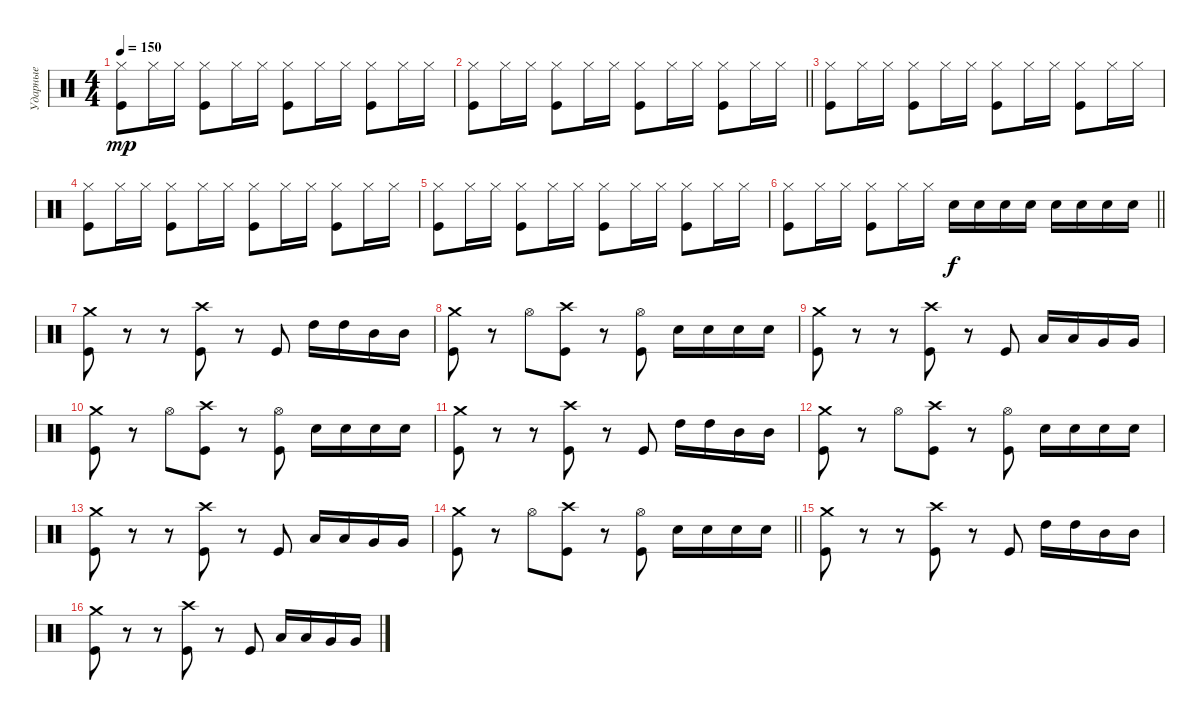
\track ("Ударные" "Ударные") {instrument percussion}
\staff {score}
\articulation defaults
\ts (4 4)
\tempo 150
\clef neutral
\ks c
("Hi-Hat (closed)" "Kick (hit)").8{dy mp} "Hi-Hat (closed)".16 "Hi-Hat (closed)".16 ("Hi-Hat (closed)" "Kick (hit)").8 "Hi-Hat (closed)".16 "Hi-Hat (closed)".16 ("Hi-Hat (closed)" "Kick (hit)").8 "Hi-Hat (closed)".16 "Hi-Hat (closed)".16 ("Hi-Hat (closed)" "Kick (hit)").8 "Hi-Hat (closed)".16 "Hi-Hat (closed)".16 |
\barLineRight lightlight
("Hi-Hat (closed)" "Kick (hit)").8 "Hi-Hat (closed)".16 "Hi-Hat (closed)".16 ("Hi-Hat (closed)" "Kick (hit)").8 "Hi-Hat (closed)".16 "Hi-Hat (closed)".16 ("Hi-Hat (closed)" "Kick (hit)").8 "Hi-Hat (closed)".16 "Hi-Hat (closed)".16 ("Hi-Hat (closed)" "Kick (hit)").8 "Hi-Hat (closed)".16 "Hi-Hat (closed)".16 |
("Hi-Hat (closed)" "Kick (hit)").8 "Hi-Hat (closed)".16 "Hi-Hat (closed)".16 ("Hi-Hat (closed)" "Kick (hit)").8 "Hi-Hat (closed)".16 "Hi-Hat (closed)".16 ("Hi-Hat (closed)" "Kick (hit)").8 "Hi-Hat (closed)".16 "Hi-Hat (closed)".16 ("Hi-Hat (closed)" "Kick (hit)").8 "Hi-Hat (closed)".16 "Hi-Hat (closed)".16 |
("Hi-Hat (closed)" "Kick (hit)").8 "Hi-Hat (closed)".16 "Hi-Hat (closed)".16 ("Hi-Hat (closed)" "Kick (hit)").8 "Hi-Hat (closed)".16 "Hi-Hat (closed)".16 ("Hi-Hat (closed)" "Kick (hit)").8 "Hi-Hat (closed)".16 "Hi-Hat (closed)".16 ("Hi-Hat (closed)" "Kick (hit)").8 "Hi-Hat (closed)".16 "Hi-Hat (closed)".16 |
("Hi-Hat (closed)" "Kick (hit)").8 "Hi-Hat (closed)".16 "Hi-Hat (closed)".16 ("Hi-Hat (closed)" "Kick (hit)").8 "Hi-Hat (closed)".16 "Hi-Hat (closed)".16 ("Hi-Hat (closed)" "Kick (hit)").8 "Hi-Hat (closed)".16 "Hi-Hat (closed)".16 ("Hi-Hat (closed)" "Kick (hit)").8 "Hi-Hat (closed)".16 "Hi-Hat (closed)".16 |
\barLineRight lightlight
("Hi-Hat (closed)" "Kick (hit)").8 "Hi-Hat (closed)".16 "Hi-Hat (closed)".16 ("Hi-Hat (closed)" "Kick (hit)").8 "Hi-Hat (closed)".16 "Hi-Hat (closed)".16 "Electric Snare (hit)".16{dy f} "Electric Snare (hit)".16 "Electric Snare (hit)".16 "Electric Snare (hit)".16 "Electric Snare (hit)".16 "Electric Snare (hit)".16 "Electric Snare (hit)".16 "Electric Snare (hit)".16 |
\section ("" " ")
("Crash medium (hit)" "Kick (hit)").8 r.8 r.8 ("Crash high (hit)" "Kick (hit)").8 r.8 "Kick (hit)".8 "High Tom (hit)".16 "High Tom (hit)".16 "Mid Tom (hit)".16 "Mid Tom (hit)".16 |
("Crash medium (hit)" "Kick (hit)").8 r.8 "Hi-Hat (open)".8 ("Crash high (hit)" "Kick (hit)").8 r.8 ("Hi-Hat (open)" "Kick (hit)").8 "Electric Snare (hit)".16 "Electric Snare (hit)".16 "Electric Snare (hit)".16 "Electric Snare (hit)".16 |
("Crash medium (hit)" "Kick (hit)").8 r.8 r.8 ("Crash high (hit)" "Kick (hit)").8 r.8 "Kick (hit)".8 "Low Tom (hit)".16 "Low Tom (hit)".16 "Very Low Tom (hit)".16 "Very Low Tom (hit)".16 |
("Crash medium (hit)" "Kick (hit)").8 r.8 "Hi-Hat (open)".8 ("Crash high (hit)" "Kick (hit)").8 r.8 ("Hi-Hat (open)" "Kick (hit)").8 "Electric Snare (hit)".16 "Electric Snare (hit)".16 "Electric Snare (hit)".16 "Electric Snare (hit)".16 |
("Crash medium (hit)" "Kick (hit)").8 r.8 r.8 ("Crash high (hit)" "Kick (hit)").8 r.8 "Kick (hit)".8 "High Tom (hit)".16 "High Tom (hit)".16 "Mid Tom (hit)".16 "Mid Tom (hit)".16 |
("Crash medium (hit)" "Kick (hit)").8 r.8 "Hi-Hat (open)".8 ("Crash high (hit)" "Kick (hit)").8 r.8 ("Hi-Hat (open)" "Kick (hit)").8 "Electric Snare (hit)".16 "Electric Snare (hit)".16 "Electric Snare (hit)".16 "Electric Snare (hit)".16 |
("Crash medium (hit)" "Kick (hit)").8 r.8 r.8 ("Crash high (hit)" "Kick (hit)").8 r.8 "Kick (hit)".8 "Low Tom (hit)".16 "Low Tom (hit)".16 "Very Low Tom (hit)".16 "Very Low Tom (hit)".16 |
\barLineRight lightlight
("Crash medium (hit)" "Kick (hit)").8 r.8 "Hi-Hat (open)".8 ("Crash high (hit)" "Kick (hit)").8 r.8 ("Hi-Hat (open)" "Kick (hit)").8 "Electric Snare (hit)".16 "Electric Snare (hit)".16 "Electric Snare (hit)".16 "Electric Snare (hit)".16 |
\section ("" " ")
("Crash medium (hit)" "Kick (hit)").8 r.8 r.8 ("Crash high (hit)" "Kick (hit)").8 r.8 "Kick (hit)".8 "High Tom (hit)".16 "High Tom (hit)".16 "Mid Tom (hit)".16 "Mid Tom (hit)".16 |
("Crash medium (hit)" "Kick (hit)").8 r.8 r.8 ("Crash high (hit)" "Kick (hit)").8 r.8 "Kick (hit)".8 "Low Tom (hit)".16 "Low Tom (hit)".16 "Very Low Tom (hit)".16 "Very Low Tom (hit)".16
